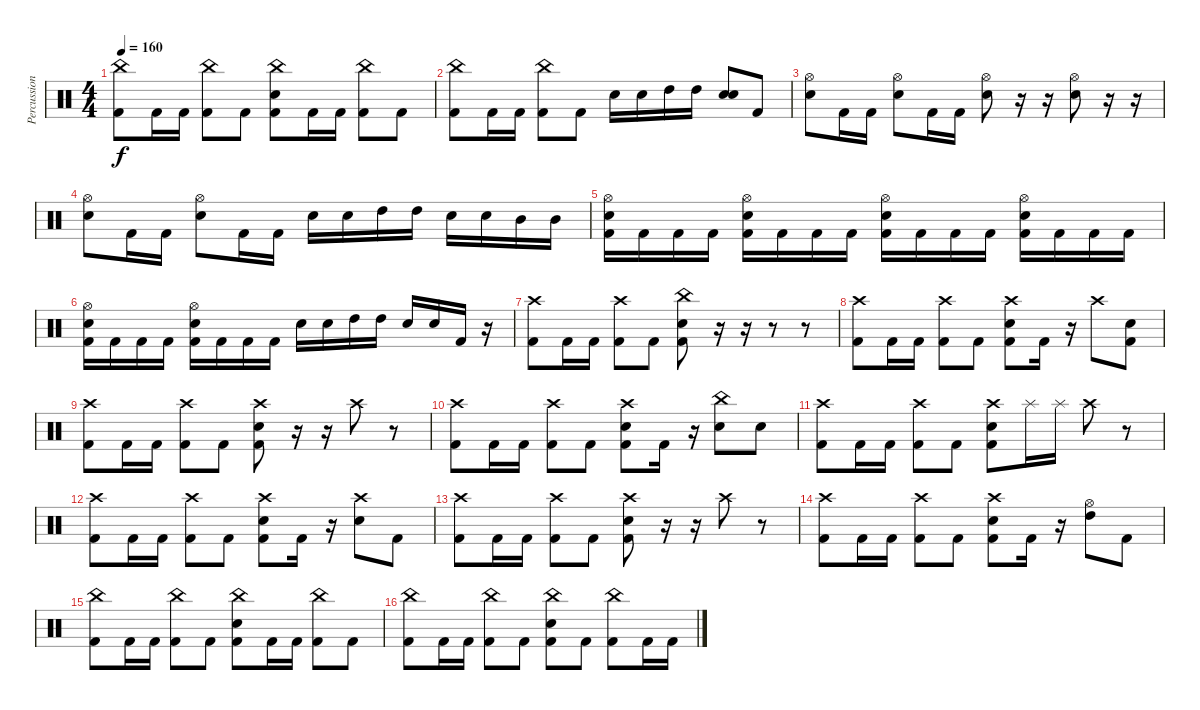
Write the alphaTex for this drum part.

\track ("Percussioni" "Percussion") {instrument percussion}
\staff {score}
\articulation defaults
\ts (4 4)
\tempo 160
\clef neutral
\ks c
("China (hit)" "Kick (hit) 2").8{dy f} "Kick (hit) 2".16 "Kick (hit) 2".16 ("China (hit)" "Kick (hit) 2").8 "Kick (hit) 2".8 ("China (hit)" "Electric Snare (hit)" "Kick (hit) 2").8 "Kick (hit) 2".16 "Kick (hit) 2".16 ("China (hit)" "Kick (hit) 2").8 "Kick (hit) 2".8 |
("China (hit)" "Kick (hit) 2").8 "Kick (hit) 2".16 "Kick (hit) 2".16 ("China (hit)" "Kick (hit) 2").8 "Kick (hit) 2".8 "Electric Snare (hit)".16 "Electric Snare (hit)".16 "High Tom (hit)".16 "High Tom (hit)".16 ("Electric Snare (hit)" "Electric Snare (hit)").8 "Kick (hit) 2".8 |
("Hi-Hat (open)" "Electric Snare (hit)").8 "Kick (hit) 2".16 "Kick (hit) 2".16 ("Hi-Hat (open)" "Electric Snare (hit)").8 "Kick (hit) 2".16 "Kick (hit) 2".16 ("Hi-Hat (open)" "Electric Snare (hit)").8 r.16 r.16 ("Hi-Hat (open)" "Electric Snare (hit)").8 r.16 r.16 |
("Hi-Hat (open)" "Electric Snare (hit)").8 "Kick (hit) 2".16 "Kick (hit) 2".16 ("Hi-Hat (open)" "Electric Snare (hit)").8 "Kick (hit) 2".16 "Kick (hit) 2".16 "Electric Snare (hit)".16 "Electric Snare (hit)".16 "High Tom (hit)".16 "High Tom (hit)".16 "Electric Snare (hit)".16 "Electric Snare (hit)".16 "Mid Tom (hit)".16 "Mid Tom (hit)".16 |
("Hi-Hat (open)" "Electric Snare (hit)" "Kick (hit) 2").16 "Kick (hit) 2".16 "Kick (hit) 2".16 "Kick (hit) 2".16 ("Hi-Hat (open)" "Electric Snare (hit)" "Kick (hit) 2").16 "Kick (hit) 2".16 "Kick (hit) 2".16 "Kick (hit) 2".16 ("Hi-Hat (open)" "Electric Snare (hit)" "Kick (hit) 2").16 "Kick (hit) 2".16 "Kick (hit) 2".16 "Kick (hit) 2".16 ("Hi-Hat (open)" "Electric Snare (hit)" "Kick (hit) 2").16 "Kick (hit) 2".16 "Kick (hit) 2".16 "Kick (hit) 2".16 |
("Hi-Hat (open)" "Electric Snare (hit)" "Kick (hit) 2").16 "Kick (hit) 2".16 "Kick (hit) 2".16 "Kick (hit) 2".16 ("Hi-Hat (open)" "Electric Snare (hit)" "Kick (hit) 2").16 "Kick (hit) 2".16 "Kick (hit) 2".16 "Kick (hit) 2".16 "Electric Snare (hit)".16 "Electric Snare (hit)".16 "High Tom (hit)".16 "High Tom (hit)".16 "Electric Snare (hit)".16 "Electric Snare (hit)".16 "Kick (hit) 2".16 r.16 |
("Crash high (hit)" "Kick (hit) 2").8 "Kick (hit) 2".16 "Kick (hit) 2".16 ("Crash high (hit)" "Kick (hit) 2").8 "Kick (hit) 2".8 ("China (hit)" "Electric Snare (hit)" "Kick (hit) 2").8 r.16 r.16 r.8 r.8 |
("Crash high (hit)" "Kick (hit) 2").8 "Kick (hit) 2".16 "Kick (hit) 2".16 ("Crash high (hit)" "Kick (hit) 2").8 "Kick (hit) 2".8 ("Crash high (hit)" "Electric Snare (hit)" "Kick (hit) 2").8 "Kick (hit) 2".16 r.16 "Crash high (hit)".8 ("Electric Snare (hit)" "Kick (hit) 2").8 |
("Crash high (hit)" "Kick (hit) 2").8 "Kick (hit) 2".16 "Kick (hit) 2".16 ("Crash high (hit)" "Kick (hit) 2").8 "Kick (hit) 2".8 ("Crash high (hit)" "Electric Snare (hit)" "Kick (hit) 2").8 r.16 r.16 "Crash high (hit)".8 r.8 |
("Crash high (hit)" "Kick (hit) 2").8 "Kick (hit) 2".16 "Kick (hit) 2".16 ("Crash high (hit)" "Kick (hit) 2").8 "Kick (hit) 2".8 ("Crash high (hit)" "Electric Snare (hit)" "Kick (hit) 2").8 "Kick (hit) 2".16 r.16 ("China (hit)" "Electric Snare (hit)").8 "Electric Snare (hit)".8 |
("Crash high (hit)" "Kick (hit) 2").8 "Kick (hit) 2".16 "Kick (hit) 2".16 ("Crash high (hit)" "Kick (hit) 2").8 "Kick (hit) 2".8 ("Crash high (hit)" "Electric Snare (hit)" "Kick (hit) 2").8 "Splash (hit)".16 "Splash (hit)".16 "Crash high (hit)".8 r.8 |
("Crash high (hit)" "Kick (hit) 2").8 "Kick (hit) 2".16 "Kick (hit) 2".16 ("Crash high (hit)" "Kick (hit) 2").8 "Kick (hit) 2".8 ("Crash high (hit)" "Electric Snare (hit)" "Kick (hit) 2").8 "Kick (hit) 2".16 r.16 ("Crash high (hit)" "Electric Snare (hit)").8 "Kick (hit) 2".8 |
("Crash high (hit)" "Kick (hit) 2").8 "Kick (hit) 2".16 "Kick (hit) 2".16 ("Crash high (hit)" "Kick (hit) 2").8 "Kick (hit) 2".8 ("Crash high (hit)" "Electric Snare (hit)" "Kick (hit) 2").8 r.16 r.16 "Crash high (hit)".8 r.8 |
("Crash high (hit)" "Kick (hit) 2").8 "Kick (hit) 2".16 "Kick (hit) 2".16 ("Crash high (hit)" "Kick (hit) 2").8 "Kick (hit) 2".8 ("Crash high (hit)" "Electric Snare (hit)" "Kick (hit) 2").8 "Kick (hit) 2".16 r.16 ("Hi-Hat (open)" "High Tom (hit)").8 "Kick (hit) 2".8 |
("China (hit)" "Kick (hit) 2").8 "Kick (hit) 2".16 "Kick (hit) 2".16 ("China (hit)" "Kick (hit) 2").8 "Kick (hit) 2".8 ("China (hit)" "Electric Snare (hit)" "Kick (hit) 2").8 "Kick (hit) 2".16 "Kick (hit) 2".16 ("China (hit)" "Kick (hit) 2").8 "Kick (hit) 2".8 |
("China (hit)" "Kick (hit) 2").8 "Kick (hit) 2".16 "Kick (hit) 2".16 ("China (hit)" "Kick (hit) 2").8 "Kick (hit) 2".8 ("China (hit)" "Electric Snare (hit)" "Kick (hit) 2").8 "Kick (hit) 2".8 ("China (hit)" "Kick (hit) 2").8 "Kick (hit) 2".16 "Kick (hit) 2".16
